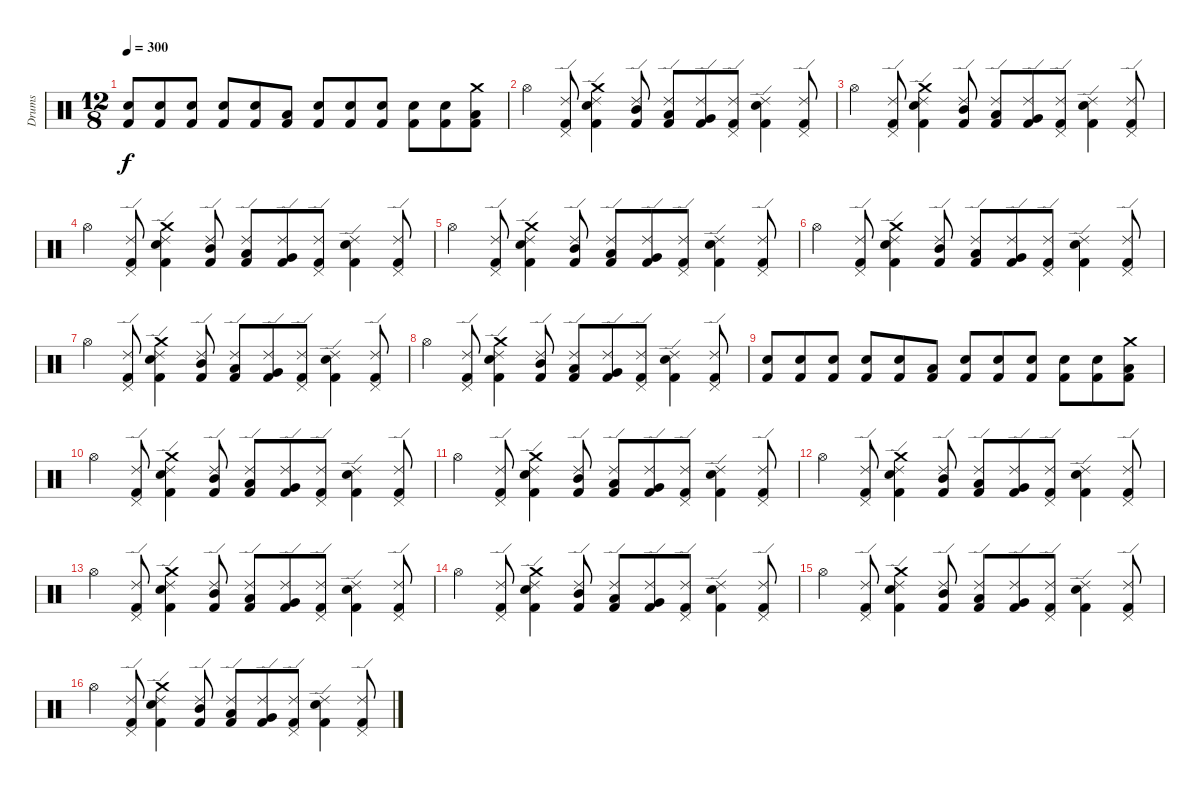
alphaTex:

\track ("Drums" "Drums") {instrument percussion}
\staff {score}
\articulation defaults
\ts (12 8)
\tempo 300
\clef neutral
\ks c
("Snare (hit) 2" "Kick (hit) 2").8{dy f} ("Snare (hit) 2" "Kick (hit) 2").8 ("Snare (hit) 2" "Kick (hit) 2").8 ("Snare (hit) 2" "Kick (hit) 2").8 ("Snare (hit) 2" "Kick (hit) 2").8 ("Low Tom (hit)" "Kick (hit) 2").8 ("Snare (hit) 2" "Kick (hit) 2").8 ("Snare (hit) 2" "Kick (hit) 2").8 ("Snare (hit) 2" "Kick (hit) 2").8 ("Snare (hit) 2" "Kick (hit) 2").8 ("Snare (hit) 2" "Kick (hit) 2").8 ("Crash medium (hit)" "Low Tom (hit)" "Kick (hit) 2").8 |
"Hi-Hat (open)".4 ("Ride (edge) 2" "Pedal Hi-Hat (hit)" "Kick (hit) 2").8 ("Ride (edge) 2" "Crash medium (hit)" "Snare (hit) 2" "Kick (hit) 2").4 ("Ride (edge) 2" "Mid Tom (hit)" "Kick (hit) 2").8 ("Ride (edge) 2" "Low Tom (hit)" "Kick (hit) 2").8 ("Ride (edge) 2" "Very Low Tom (hit)" "Kick (hit) 2").8 ("Ride (edge) 2" "Pedal Hi-Hat (hit)" "Kick (hit) 2").8 ("Ride (edge) 2" "Snare (hit) 2" "Kick (hit) 2").4 ("Ride (edge) 2" "Pedal Hi-Hat (hit)" "Kick (hit) 2").8 |
"Hi-Hat (open)".4 ("Ride (edge) 2" "Pedal Hi-Hat (hit)" "Kick (hit) 2").8 ("Ride (edge) 2" "Crash medium (hit)" "Snare (hit) 2" "Kick (hit) 2").4 ("Ride (edge) 2" "Mid Tom (hit)" "Kick (hit) 2").8 ("Ride (edge) 2" "Low Tom (hit)" "Kick (hit) 2").8 ("Ride (edge) 2" "Very Low Tom (hit)" "Kick (hit) 2").8 ("Ride (edge) 2" "Pedal Hi-Hat (hit)" "Kick (hit) 2").8 ("Ride (edge) 2" "Snare (hit) 2" "Kick (hit) 2").4 ("Ride (edge) 2" "Pedal Hi-Hat (hit)" "Kick (hit) 2").8 |
"Hi-Hat (open)".4 ("Ride (edge) 2" "Pedal Hi-Hat (hit)" "Kick (hit) 2").8 ("Ride (edge) 2" "Crash medium (hit)" "Snare (hit) 2" "Kick (hit) 2").4 ("Ride (edge) 2" "Mid Tom (hit)" "Kick (hit) 2").8 ("Ride (edge) 2" "Low Tom (hit)" "Kick (hit) 2").8 ("Ride (edge) 2" "Very Low Tom (hit)" "Kick (hit) 2").8 ("Ride (edge) 2" "Pedal Hi-Hat (hit)" "Kick (hit) 2").8 ("Ride (edge) 2" "Snare (hit) 2" "Kick (hit) 2").4 ("Ride (edge) 2" "Pedal Hi-Hat (hit)" "Kick (hit) 2").8 |
"Hi-Hat (open)".4 ("Ride (edge) 2" "Pedal Hi-Hat (hit)" "Kick (hit) 2").8 ("Ride (edge) 2" "Crash medium (hit)" "Snare (hit) 2" "Kick (hit) 2").4 ("Ride (edge) 2" "Mid Tom (hit)" "Kick (hit) 2").8 ("Ride (edge) 2" "Low Tom (hit)" "Kick (hit) 2").8 ("Ride (edge) 2" "Very Low Tom (hit)" "Kick (hit) 2").8 ("Ride (edge) 2" "Pedal Hi-Hat (hit)" "Kick (hit) 2").8 ("Ride (edge) 2" "Snare (hit) 2" "Kick (hit) 2").4 ("Ride (edge) 2" "Pedal Hi-Hat (hit)" "Kick (hit) 2").8 |
"Hi-Hat (open)".4 ("Ride (edge) 2" "Pedal Hi-Hat (hit)" "Kick (hit) 2").8 ("Ride (edge) 2" "Crash medium (hit)" "Snare (hit) 2" "Kick (hit) 2").4 ("Ride (edge) 2" "Mid Tom (hit)" "Kick (hit) 2").8 ("Ride (edge) 2" "Low Tom (hit)" "Kick (hit) 2").8 ("Ride (edge) 2" "Very Low Tom (hit)" "Kick (hit) 2").8 ("Ride (edge) 2" "Pedal Hi-Hat (hit)" "Kick (hit) 2").8 ("Ride (edge) 2" "Snare (hit) 2" "Kick (hit) 2").4 ("Ride (edge) 2" "Pedal Hi-Hat (hit)" "Kick (hit) 2").8 |
"Hi-Hat (open)".4 ("Ride (edge) 2" "Pedal Hi-Hat (hit)" "Kick (hit) 2").8 ("Ride (edge) 2" "Crash medium (hit)" "Snare (hit) 2" "Kick (hit) 2").4 ("Ride (edge) 2" "Mid Tom (hit)" "Kick (hit) 2").8 ("Ride (edge) 2" "Low Tom (hit)" "Kick (hit) 2").8 ("Ride (edge) 2" "Very Low Tom (hit)" "Kick (hit) 2").8 ("Ride (edge) 2" "Pedal Hi-Hat (hit)" "Kick (hit) 2").8 ("Ride (edge) 2" "Snare (hit) 2" "Kick (hit) 2").4 ("Ride (edge) 2" "Pedal Hi-Hat (hit)" "Kick (hit) 2").8 |
"Hi-Hat (open)".4 ("Ride (edge) 2" "Pedal Hi-Hat (hit)" "Kick (hit) 2").8 ("Ride (edge) 2" "Crash medium (hit)" "Snare (hit) 2" "Kick (hit) 2").4 ("Ride (edge) 2" "Mid Tom (hit)" "Kick (hit) 2").8 ("Ride (edge) 2" "Low Tom (hit)" "Kick (hit) 2").8 ("Ride (edge) 2" "Very Low Tom (hit)" "Kick (hit) 2").8 ("Ride (edge) 2" "Pedal Hi-Hat (hit)" "Kick (hit) 2").8 ("Ride (edge) 2" "Snare (hit) 2" "Kick (hit) 2").4 ("Ride (edge) 2" "Pedal Hi-Hat (hit)" "Kick (hit) 2").8 |
("Snare (hit) 2" "Kick (hit) 2").8 ("Snare (hit) 2" "Kick (hit) 2").8 ("Snare (hit) 2" "Kick (hit) 2").8 ("Snare (hit) 2" "Kick (hit) 2").8 ("Snare (hit) 2" "Kick (hit) 2").8 ("Low Tom (hit)" "Kick (hit) 2").8 ("Snare (hit) 2" "Kick (hit) 2").8 ("Snare (hit) 2" "Kick (hit) 2").8 ("Snare (hit) 2" "Kick (hit) 2").8 ("Snare (hit) 2" "Kick (hit) 2").8 ("Snare (hit) 2" "Kick (hit) 2").8 ("Crash medium (hit)" "Low Tom (hit)" "Kick (hit) 2").8 |
"Hi-Hat (open)".4 ("Ride (edge) 2" "Pedal Hi-Hat (hit)" "Kick (hit) 2").8 ("Ride (edge) 2" "Crash medium (hit)" "Snare (hit) 2" "Kick (hit) 2").4 ("Ride (edge) 2" "Mid Tom (hit)" "Kick (hit) 2").8 ("Ride (edge) 2" "Low Tom (hit)" "Kick (hit) 2").8 ("Ride (edge) 2" "Very Low Tom (hit)" "Kick (hit) 2").8 ("Ride (edge) 2" "Pedal Hi-Hat (hit)" "Kick (hit) 2").8 ("Ride (edge) 2" "Snare (hit) 2" "Kick (hit) 2").4 ("Ride (edge) 2" "Pedal Hi-Hat (hit)" "Kick (hit) 2").8 |
"Hi-Hat (open)".4 ("Ride (edge) 2" "Pedal Hi-Hat (hit)" "Kick (hit) 2").8 ("Ride (edge) 2" "Crash medium (hit)" "Snare (hit) 2" "Kick (hit) 2").4 ("Ride (edge) 2" "Mid Tom (hit)" "Kick (hit) 2").8 ("Ride (edge) 2" "Low Tom (hit)" "Kick (hit) 2").8 ("Ride (edge) 2" "Very Low Tom (hit)" "Kick (hit) 2").8 ("Ride (edge) 2" "Pedal Hi-Hat (hit)" "Kick (hit) 2").8 ("Ride (edge) 2" "Snare (hit) 2" "Kick (hit) 2").4 ("Ride (edge) 2" "Pedal Hi-Hat (hit)" "Kick (hit) 2").8 |
"Hi-Hat (open)".4 ("Ride (edge) 2" "Pedal Hi-Hat (hit)" "Kick (hit) 2").8 ("Ride (edge) 2" "Crash medium (hit)" "Snare (hit) 2" "Kick (hit) 2").4 ("Ride (edge) 2" "Mid Tom (hit)" "Kick (hit) 2").8 ("Ride (edge) 2" "Low Tom (hit)" "Kick (hit) 2").8 ("Ride (edge) 2" "Very Low Tom (hit)" "Kick (hit) 2").8 ("Ride (edge) 2" "Pedal Hi-Hat (hit)" "Kick (hit) 2").8 ("Ride (edge) 2" "Snare (hit) 2" "Kick (hit) 2").4 ("Ride (edge) 2" "Pedal Hi-Hat (hit)" "Kick (hit) 2").8 |
"Hi-Hat (open)".4 ("Ride (edge) 2" "Pedal Hi-Hat (hit)" "Kick (hit) 2").8 ("Ride (edge) 2" "Crash medium (hit)" "Snare (hit) 2" "Kick (hit) 2").4 ("Ride (edge) 2" "Mid Tom (hit)" "Kick (hit) 2").8 ("Ride (edge) 2" "Low Tom (hit)" "Kick (hit) 2").8 ("Ride (edge) 2" "Very Low Tom (hit)" "Kick (hit) 2").8 ("Ride (edge) 2" "Pedal Hi-Hat (hit)" "Kick (hit) 2").8 ("Ride (edge) 2" "Snare (hit) 2" "Kick (hit) 2").4 ("Ride (edge) 2" "Pedal Hi-Hat (hit)" "Kick (hit) 2").8 |
"Hi-Hat (open)".4 ("Ride (edge) 2" "Pedal Hi-Hat (hit)" "Kick (hit) 2").8 ("Ride (edge) 2" "Crash medium (hit)" "Snare (hit) 2" "Kick (hit) 2").4 ("Ride (edge) 2" "Mid Tom (hit)" "Kick (hit) 2").8 ("Ride (edge) 2" "Low Tom (hit)" "Kick (hit) 2").8 ("Ride (edge) 2" "Very Low Tom (hit)" "Kick (hit) 2").8 ("Ride (edge) 2" "Pedal Hi-Hat (hit)" "Kick (hit) 2").8 ("Ride (edge) 2" "Snare (hit) 2" "Kick (hit) 2").4 ("Ride (edge) 2" "Pedal Hi-Hat (hit)" "Kick (hit) 2").8 |
"Hi-Hat (open)".4 ("Ride (edge) 2" "Pedal Hi-Hat (hit)" "Kick (hit) 2").8 ("Ride (edge) 2" "Crash medium (hit)" "Snare (hit) 2" "Kick (hit) 2").4 ("Ride (edge) 2" "Mid Tom (hit)" "Kick (hit) 2").8 ("Ride (edge) 2" "Low Tom (hit)" "Kick (hit) 2").8 ("Ride (edge) 2" "Very Low Tom (hit)" "Kick (hit) 2").8 ("Ride (edge) 2" "Pedal Hi-Hat (hit)" "Kick (hit) 2").8 ("Ride (edge) 2" "Snare (hit) 2" "Kick (hit) 2").4 ("Ride (edge) 2" "Pedal Hi-Hat (hit)" "Kick (hit) 2").8 |
"Hi-Hat (open)".4 ("Ride (edge) 2" "Pedal Hi-Hat (hit)" "Kick (hit) 2").8 ("Ride (edge) 2" "Crash medium (hit)" "Snare (hit) 2" "Kick (hit) 2").4 ("Ride (edge) 2" "Mid Tom (hit)" "Kick (hit) 2").8 ("Ride (edge) 2" "Low Tom (hit)" "Kick (hit) 2").8 ("Ride (edge) 2" "Very Low Tom (hit)" "Kick (hit) 2").8 ("Ride (edge) 2" "Pedal Hi-Hat (hit)" "Kick (hit) 2").8 ("Ride (edge) 2" "Snare (hit) 2" "Kick (hit) 2").4 ("Ride (edge) 2" "Pedal Hi-Hat (hit)" "Kick (hit) 2").8
